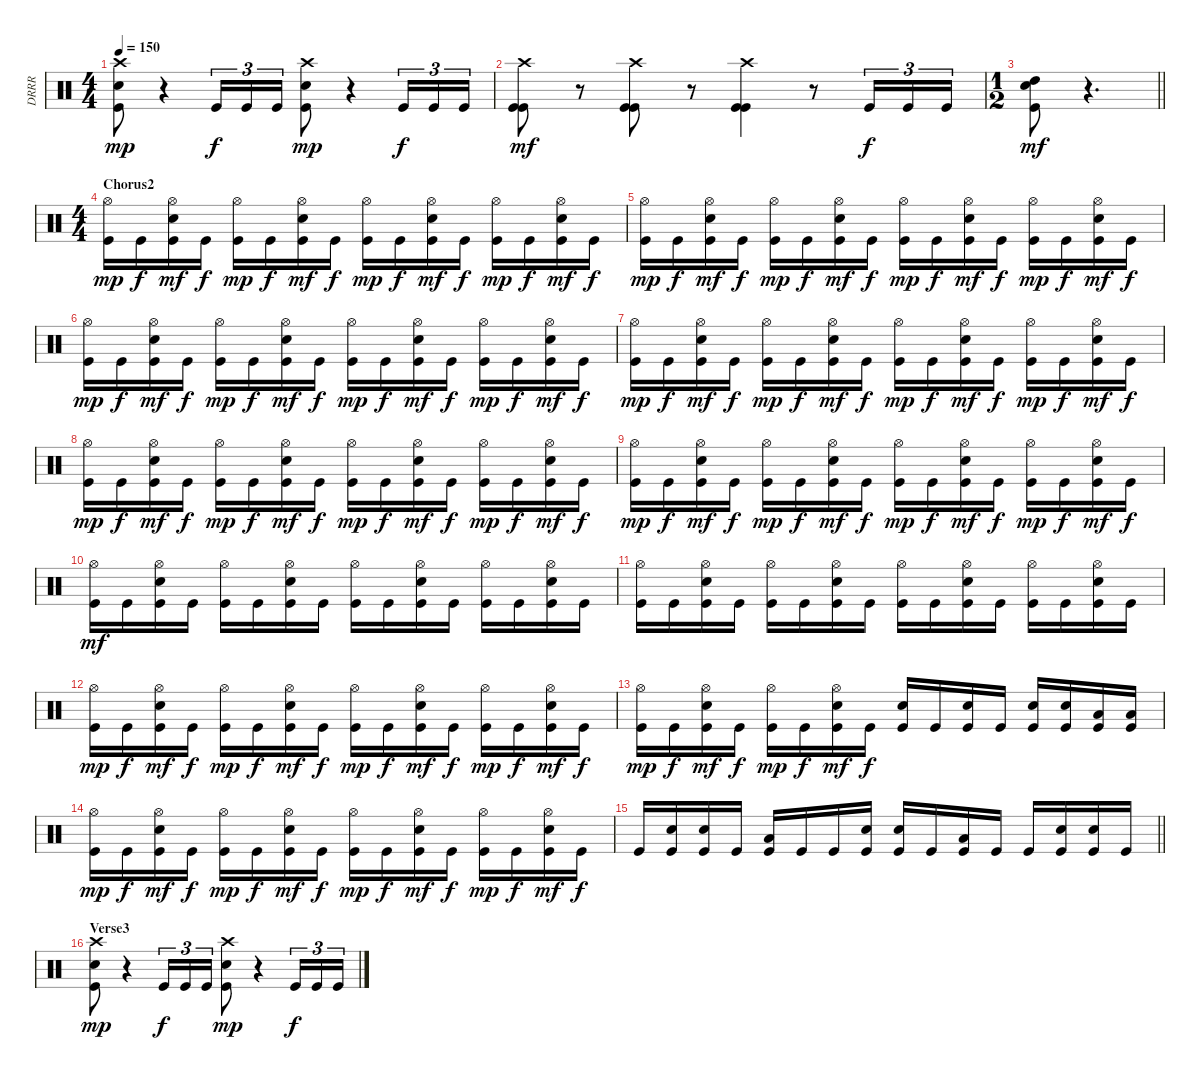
\track ("DRRR" "DRRR") {instrument percussion}
\staff {score}
\articulation defaults
\ts (4 4)
\tempo 150
\clef neutral
\ks c
("Crash high (hit)" "Snare (hit) 2" "Kick (hit)").8{dy mp} r.4 "Kick (hit)".16{tu (3 2) dy f} "Kick (hit)".16{tu (3 2)} "Kick (hit)".16{tu (3 2)} ("Crash high (hit)" "Snare (hit) 2" "Kick (hit)").8{dy mp} r.4 "Kick (hit)".16{tu (3 2) dy f} "Kick (hit)".16{tu (3 2)} "Kick (hit)".16{tu (3 2)} |
("Crash high (hit)" "Kick (hit)" "Kick (hit)").8{dy mf} r.8 ("Crash high (hit)" "Kick (hit)" "Kick (hit)").8 r.8 ("Crash high (hit)" "Kick (hit)" "Kick (hit)").4 r.8 "Kick (hit)".16{tu (3 2) dy f} "Kick (hit)".16{tu (3 2)} "Kick (hit)".16{tu (3 2)} |
\ts (1 2)
\barLineRight lightlight
("High Tom (hit)" "Snare (hit) 2" "Kick (hit)").8{dy mf} r.4{d} |
\ts (4 4)
\section ("" "Chorus2")
("Hi-Hat (open)" "Kick (hit)").16{dy mp} "Kick (hit)".16{dy f} ("Hi-Hat (open)" "Snare (hit) 2" "Kick (hit)").16{dy mf} "Kick (hit)".16{dy f} ("Hi-Hat (open)" "Kick (hit)").16{dy mp} "Kick (hit)".16{dy f} ("Hi-Hat (open)" "Snare (hit) 2" "Kick (hit)").16{dy mf} "Kick (hit)".16{dy f} ("Hi-Hat (open)" "Kick (hit)").16{dy mp} "Kick (hit)".16{dy f} ("Hi-Hat (open)" "Snare (hit) 2" "Kick (hit)").16{dy mf} "Kick (hit)".16{dy f} ("Hi-Hat (open)" "Kick (hit)").16{dy mp} "Kick (hit)".16{dy f} ("Hi-Hat (open)" "Snare (hit) 2" "Kick (hit)").16{dy mf} "Kick (hit)".16{dy f} |
("Hi-Hat (open)" "Kick (hit)").16{dy mp} "Kick (hit)".16{dy f} ("Hi-Hat (open)" "Snare (hit) 2" "Kick (hit)").16{dy mf} "Kick (hit)".16{dy f} ("Hi-Hat (open)" "Kick (hit)").16{dy mp} "Kick (hit)".16{dy f} ("Hi-Hat (open)" "Snare (hit) 2" "Kick (hit)").16{dy mf} "Kick (hit)".16{dy f} ("Hi-Hat (open)" "Kick (hit)").16{dy mp} "Kick (hit)".16{dy f} ("Hi-Hat (open)" "Snare (hit) 2" "Kick (hit)").16{dy mf} "Kick (hit)".16{dy f} ("Hi-Hat (open)" "Kick (hit)").16{dy mp} "Kick (hit)".16{dy f} ("Hi-Hat (open)" "Snare (hit) 2" "Kick (hit)").16{dy mf} "Kick (hit)".16{dy f} |
("Hi-Hat (open)" "Kick (hit)").16{dy mp} "Kick (hit)".16{dy f} ("Hi-Hat (open)" "Snare (hit) 2" "Kick (hit)").16{dy mf} "Kick (hit)".16{dy f} ("Hi-Hat (open)" "Kick (hit)").16{dy mp} "Kick (hit)".16{dy f} ("Hi-Hat (open)" "Snare (hit) 2" "Kick (hit)").16{dy mf} "Kick (hit)".16{dy f} ("Hi-Hat (open)" "Kick (hit)").16{dy mp} "Kick (hit)".16{dy f} ("Hi-Hat (open)" "Snare (hit) 2" "Kick (hit)").16{dy mf} "Kick (hit)".16{dy f} ("Hi-Hat (open)" "Kick (hit)").16{dy mp} "Kick (hit)".16{dy f} ("Hi-Hat (open)" "Snare (hit) 2" "Kick (hit)").16{dy mf} "Kick (hit)".16{dy f} |
("Hi-Hat (open)" "Kick (hit)").16{dy mp} "Kick (hit)".16{dy f} ("Hi-Hat (open)" "Snare (hit) 2" "Kick (hit)").16{dy mf} "Kick (hit)".16{dy f} ("Hi-Hat (open)" "Kick (hit)").16{dy mp} "Kick (hit)".16{dy f} ("Hi-Hat (open)" "Snare (hit) 2" "Kick (hit)").16{dy mf} "Kick (hit)".16{dy f} ("Hi-Hat (open)" "Kick (hit)").16{dy mp} "Kick (hit)".16{dy f} ("Hi-Hat (open)" "Snare (hit) 2" "Kick (hit)").16{dy mf} "Kick (hit)".16{dy f} ("Hi-Hat (open)" "Kick (hit)").16{dy mp} "Kick (hit)".16{dy f} ("Hi-Hat (open)" "Snare (hit) 2" "Kick (hit)").16{dy mf} "Kick (hit)".16{dy f} |
("Hi-Hat (open)" "Kick (hit)").16{dy mp} "Kick (hit)".16{dy f} ("Hi-Hat (open)" "Snare (hit) 2" "Kick (hit)").16{dy mf} "Kick (hit)".16{dy f} ("Hi-Hat (open)" "Kick (hit)").16{dy mp} "Kick (hit)".16{dy f} ("Hi-Hat (open)" "Snare (hit) 2" "Kick (hit)").16{dy mf} "Kick (hit)".16{dy f} ("Hi-Hat (open)" "Kick (hit)").16{dy mp} "Kick (hit)".16{dy f} ("Hi-Hat (open)" "Snare (hit) 2" "Kick (hit)").16{dy mf} "Kick (hit)".16{dy f} ("Hi-Hat (open)" "Kick (hit)").16{dy mp} "Kick (hit)".16{dy f} ("Hi-Hat (open)" "Snare (hit) 2" "Kick (hit)").16{dy mf} "Kick (hit)".16{dy f} |
("Hi-Hat (open)" "Kick (hit)").16{dy mp} "Kick (hit)".16{dy f} ("Hi-Hat (open)" "Snare (hit) 2" "Kick (hit)").16{dy mf} "Kick (hit)".16{dy f} ("Hi-Hat (open)" "Kick (hit)").16{dy mp} "Kick (hit)".16{dy f} ("Hi-Hat (open)" "Snare (hit) 2" "Kick (hit)").16{dy mf} "Kick (hit)".16{dy f} ("Hi-Hat (open)" "Kick (hit)").16{dy mp} "Kick (hit)".16{dy f} ("Hi-Hat (open)" "Snare (hit) 2" "Kick (hit)").16{dy mf} "Kick (hit)".16{dy f} ("Hi-Hat (open)" "Kick (hit)").16{dy mp} "Kick (hit)".16{dy f} ("Hi-Hat (open)" "Snare (hit) 2" "Kick (hit)").16{dy mf} "Kick (hit)".16{dy f} |
("Hi-Hat (open)" "Kick (hit)").16{dy mf} "Kick (hit)".16 ("Hi-Hat (open)" "Snare (hit) 2" "Kick (hit)").16 "Kick (hit)".16 ("Hi-Hat (open)" "Kick (hit)").16 "Kick (hit)".16 ("Hi-Hat (open)" "Snare (hit) 2" "Kick (hit)").16 "Kick (hit)".16 ("Hi-Hat (open)" "Kick (hit)").16 "Kick (hit)".16 ("Hi-Hat (open)" "Snare (hit) 2" "Kick (hit)").16 "Kick (hit)".16 ("Hi-Hat (open)" "Kick (hit)").16 "Kick (hit)".16 ("Hi-Hat (open)" "Snare (hit) 2" "Kick (hit)").16 "Kick (hit)".16 |
("Hi-Hat (open)" "Kick (hit)").16 "Kick (hit)".16 ("Hi-Hat (open)" "Snare (hit) 2" "Kick (hit)").16 "Kick (hit)".16 ("Hi-Hat (open)" "Kick (hit)").16 "Kick (hit)".16 ("Hi-Hat (open)" "Snare (hit) 2" "Kick (hit)").16 "Kick (hit)".16 ("Hi-Hat (open)" "Kick (hit)").16 "Kick (hit)".16 ("Hi-Hat (open)" "Snare (hit) 2" "Kick (hit)").16 "Kick (hit)".16 ("Hi-Hat (open)" "Kick (hit)").16 "Kick (hit)".16 ("Hi-Hat (open)" "Snare (hit) 2" "Kick (hit)").16 "Kick (hit)".16 |
("Hi-Hat (open)" "Kick (hit)").16{dy mp} "Kick (hit)".16{dy f} ("Hi-Hat (open)" "Snare (hit) 2" "Kick (hit)").16{dy mf} "Kick (hit)".16{dy f} ("Hi-Hat (open)" "Kick (hit)").16{dy mp} "Kick (hit)".16{dy f} ("Hi-Hat (open)" "Snare (hit) 2" "Kick (hit)").16{dy mf} "Kick (hit)".16{dy f} ("Hi-Hat (open)" "Kick (hit)").16{dy mp} "Kick (hit)".16{dy f} ("Hi-Hat (open)" "Snare (hit) 2" "Kick (hit)").16{dy mf} "Kick (hit)".16{dy f} ("Hi-Hat (open)" "Kick (hit)").16{dy mp} "Kick (hit)".16{dy f} ("Hi-Hat (open)" "Snare (hit) 2" "Kick (hit)").16{dy mf} "Kick (hit)".16{dy f} |
("Hi-Hat (open)" "Kick (hit)").16{dy mp} "Kick (hit)".16{dy f} ("Hi-Hat (open)" "Snare (hit) 2" "Kick (hit)").16{dy mf} "Kick (hit)".16{dy f} ("Hi-Hat (open)" "Kick (hit)").16{dy mp} "Kick (hit)".16{dy f} ("Hi-Hat (open)" "Snare (hit) 2" "Kick (hit)").16{dy mf} "Kick (hit)".16{dy f} ("Snare (hit) 2" "Kick (hit)").16 "Kick (hit)".16 ("Snare (hit) 2" "Kick (hit)").16 "Kick (hit)".16 ("Snare (hit) 2" "Kick (hit)").16 ("Snare (hit) 2" "Kick (hit)").16 ("Low Tom (hit)" "Kick (hit)").16 ("Low Tom (hit)" "Kick (hit)").16 |
("Hi-Hat (open)" "Kick (hit)").16{dy mp} "Kick (hit)".16{dy f} ("Hi-Hat (open)" "Snare (hit) 2" "Kick (hit)").16{dy mf} "Kick (hit)".16{dy f} ("Hi-Hat (open)" "Kick (hit)").16{dy mp} "Kick (hit)".16{dy f} ("Hi-Hat (open)" "Snare (hit) 2" "Kick (hit)").16{dy mf} "Kick (hit)".16{dy f} ("Hi-Hat (open)" "Kick (hit)").16{dy mp} "Kick (hit)".16{dy f} ("Hi-Hat (open)" "Snare (hit) 2" "Kick (hit)").16{dy mf} "Kick (hit)".16{dy f} ("Hi-Hat (open)" "Kick (hit)").16{dy mp} "Kick (hit)".16{dy f} ("Hi-Hat (open)" "Snare (hit) 2" "Kick (hit)").16{dy mf} "Kick (hit)".16{dy f} |
\barLineRight lightlight "Kick (hit)".16
("Snare (hit) 2" "Kick (hit)").16 ("Snare (hit) 2" "Kick (hit)").16 "Kick (hit)".16 ("Low Tom (hit)" "Kick (hit)").16 "Kick (hit)".16 "Kick (hit)".16 ("Snare (hit) 2" "Kick (hit)").16 ("Snare (hit) 2" "Kick (hit)").16 "Kick (hit)".16 ("Low Tom (hit)" "Kick (hit)").16 "Kick (hit)".16 "Kick (hit)".16 ("Snare (hit) 2" "Kick (hit)").16 ("Snare (hit) 2" "Kick (hit)").16 "Kick (hit)".16 |
\section ("" "Verse3")
("Crash high (hit)" "Snare (hit) 2" "Kick (hit)").8{dy mp} r.4 "Kick (hit)".16{tu (3 2) dy f} "Kick (hit)".16{tu (3 2)} "Kick (hit)".16{tu (3 2)} ("Crash high (hit)" "Snare (hit) 2" "Kick (hit)").8{dy mp} r.4 "Kick (hit)".16{tu (3 2) dy f} "Kick (hit)".16{tu (3 2)} "Kick (hit)".16{tu (3 2)}
